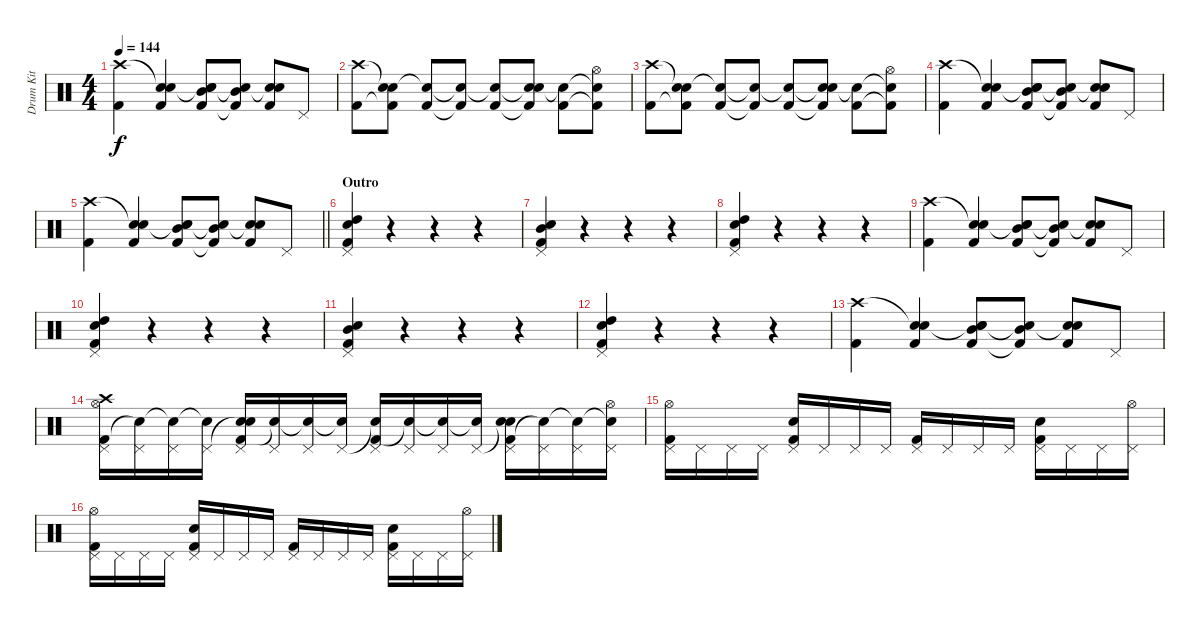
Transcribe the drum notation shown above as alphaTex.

\track ("Drum Kit" "Drum Kit") {instrument percussion}
\staff {score}
\articulation defaults
\ts (4 4)
\tempo 144
\clef neutral
\ks c
("Kick (hit) 2" "Crash high (hit)").4{dy f} ("Kick (hit) 2" "Snare (hit)"{t} "Snare (hit) 2").4 ("Kick (hit) 2" "Snare (hit)"{t} "Electric Snare (hit)" "Mid Tom (hit)").8 ("Kick (hit) 2"{t} "Snare (hit)"{t} "Mid Tom (hit)").8 ("Kick (hit) 2" "Snare (hit)"{t} "Snare (hit) 2").8 "Pedal Hi-Hat (hit)".8 |
("Kick (hit) 2" "Crash high (hit)").8 ("Kick (hit) 2"{t} "Snare (hit)"{t} "Electric Snare (hit)").8 ("Kick (hit) 2" "Snare (hit)"{t}).8 ("Kick (hit) 2"{t} "Snare (hit)"{t}).8 ("Kick (hit) 2" "Snare (hit)"{t}).8 ("Kick (hit) 2"{t} "Snare (hit)"{t} "Electric Snare (hit)").8 ("Kick (hit) 2" "Snare (hit)"{t}).8 ("Kick (hit) 2"{t} "Snare (hit)"{t} "Hi-Hat (open)").8 |
("Kick (hit) 2" "Crash high (hit)").8 ("Kick (hit) 2"{t} "Snare (hit)"{t} "Electric Snare (hit)").8 ("Kick (hit) 2" "Snare (hit)"{t}).8 ("Kick (hit) 2"{t} "Snare (hit)"{t}).8 ("Kick (hit) 2" "Snare (hit)"{t}).8 ("Kick (hit) 2"{t} "Snare (hit)"{t} "Electric Snare (hit)").8 ("Kick (hit) 2" "Snare (hit)"{t}).8 ("Kick (hit) 2"{t} "Snare (hit)"{t} "Hi-Hat (open)").8 |
("Kick (hit) 2" "Crash high (hit)").4 ("Kick (hit) 2" "Snare (hit)"{t} "Snare (hit) 2").4 ("Kick (hit) 2" "Snare (hit)"{t} "Electric Snare (hit)" "Mid Tom (hit)").8 ("Kick (hit) 2"{t} "Snare (hit)"{t} "Mid Tom (hit)").8 ("Kick (hit) 2" "Snare (hit)"{t} "Snare (hit) 2").8 "Pedal Hi-Hat (hit)".8 |
\barLineRight lightlight
("Kick (hit) 2" "Crash high (hit)").4 ("Kick (hit) 2" "Snare (hit)"{t} "Snare (hit) 2").4 ("Kick (hit) 2" "Snare (hit)"{t} "Electric Snare (hit)" "Mid Tom (hit)").8 ("Kick (hit) 2"{t} "Snare (hit)"{t} "Mid Tom (hit)").8 ("Kick (hit) 2" "Snare (hit)"{t} "Snare (hit) 2").8 "Pedal Hi-Hat (hit)".8 |
\section ("" "Outro")
("Kick (hit) 2" "Electric Snare (hit)" "High Tom (hit)" "Pedal Hi-Hat (hit)").4 r.4 r.4 r.4 |
("Kick (hit) 2" "Electric Snare (hit)" "Mid Tom (hit)" "Pedal Hi-Hat (hit)").4 r.4 r.4 r.4 |
("Kick (hit) 2" "Electric Snare (hit)" "High Tom (hit)" "Pedal Hi-Hat (hit)").4 r.4 r.4 r.4 |
("Kick (hit) 2" "Crash high (hit)").4 ("Kick (hit) 2" "Snare (hit)"{t} "Snare (hit) 2").4 ("Kick (hit) 2" "Snare (hit)"{t} "Electric Snare (hit)" "Mid Tom (hit)").8 ("Kick (hit) 2"{t} "Snare (hit)"{t} "Mid Tom (hit)").8 ("Kick (hit) 2" "Snare (hit)"{t} "Snare (hit) 2").8 "Pedal Hi-Hat (hit)".8 |
("Kick (hit) 2" "Electric Snare (hit)" "High Tom (hit)" "Pedal Hi-Hat (hit)").4 r.4 r.4 r.4 |
("Kick (hit) 2" "Electric Snare (hit)" "Mid Tom (hit)" "Pedal Hi-Hat (hit)").4 r.4 r.4 r.4 |
("Kick (hit) 2" "Electric Snare (hit)" "High Tom (hit)" "Pedal Hi-Hat (hit)").4 r.4 r.4 r.4 |
("Kick (hit) 2" "Crash high (hit)").4 ("Kick (hit) 2" "Snare (hit)"{t} "Snare (hit) 2").4 ("Kick (hit) 2" "Snare (hit)"{t} "Electric Snare (hit)" "Mid Tom (hit)").8 ("Kick (hit) 2"{t} "Snare (hit)"{t} "Mid Tom (hit)").8 ("Kick (hit) 2" "Snare (hit)"{t} "Snare (hit) 2").8 "Pedal Hi-Hat (hit)".8 |
("Kick (hit) 2" "Crash high (hit)" "Hi-Hat (open)" "Pedal Hi-Hat (hit)").16 ("Snare (hit)"{t} "Pedal Hi-Hat (hit)").16 ("Snare (hit)"{t} "Pedal Hi-Hat (hit)").16 ("Snare (hit)"{t} "Pedal Hi-Hat (hit)").16 ("Kick (hit) 2" "Snare (hit)"{t} "Electric Snare (hit)" "Pedal Hi-Hat (hit)").16 ("Snare (hit)"{t} "Pedal Hi-Hat (hit)").16 ("Snare (hit)"{t} "Pedal Hi-Hat (hit)").16 ("Snare (hit)"{t} "Pedal Hi-Hat (hit)").16 ("Kick (hit) 2" "Snare (hit)"{t} "Pedal Hi-Hat (hit)").16 ("Snare (hit)"{t} "Pedal Hi-Hat (hit)").16 ("Snare (hit)"{t} "Pedal Hi-Hat (hit)").16 ("Snare (hit)"{t} "Pedal Hi-Hat (hit)").16 ("Kick (hit) 2" "Snare (hit)"{t} "Electric Snare (hit)" "Pedal Hi-Hat (hit)").16 ("Snare (hit)"{t} "Pedal Hi-Hat (hit)").16 ("Snare (hit)"{t} "Pedal Hi-Hat (hit)").16 ("Snare (hit)"{t} "Hi-Hat (open)" "Pedal Hi-Hat (hit)").16 |
("Kick (hit) 2" "Hi-Hat (open)" "Pedal Hi-Hat (hit)").16 "Pedal Hi-Hat (hit)".16 "Pedal Hi-Hat (hit)".16 "Pedal Hi-Hat (hit)".16 ("Kick (hit) 2" "Electric Snare (hit)" "Pedal Hi-Hat (hit)").16 "Pedal Hi-Hat (hit)".16 "Pedal Hi-Hat (hit)".16 "Pedal Hi-Hat (hit)".16 ("Kick (hit) 2" "Pedal Hi-Hat (hit)").16 "Pedal Hi-Hat (hit)".16 "Pedal Hi-Hat (hit)".16 "Pedal Hi-Hat (hit)".16 ("Kick (hit) 2" "Electric Snare (hit)" "Pedal Hi-Hat (hit)").16 "Pedal Hi-Hat (hit)".16 "Pedal Hi-Hat (hit)".16 ("Hi-Hat (open)" "Pedal Hi-Hat (hit)").16 |
("Kick (hit) 2" "Hi-Hat (open)" "Pedal Hi-Hat (hit)").16 "Pedal Hi-Hat (hit)".16 "Pedal Hi-Hat (hit)".16 "Pedal Hi-Hat (hit)".16 ("Kick (hit) 2" "Electric Snare (hit)" "Pedal Hi-Hat (hit)").16 "Pedal Hi-Hat (hit)".16 "Pedal Hi-Hat (hit)".16 "Pedal Hi-Hat (hit)".16 ("Kick (hit) 2" "Pedal Hi-Hat (hit)").16 "Pedal Hi-Hat (hit)".16 "Pedal Hi-Hat (hit)".16 "Pedal Hi-Hat (hit)".16 ("Kick (hit) 2" "Electric Snare (hit)" "Pedal Hi-Hat (hit)").16 "Pedal Hi-Hat (hit)".16 "Pedal Hi-Hat (hit)".16 ("Hi-Hat (open)" "Pedal Hi-Hat (hit)").16
